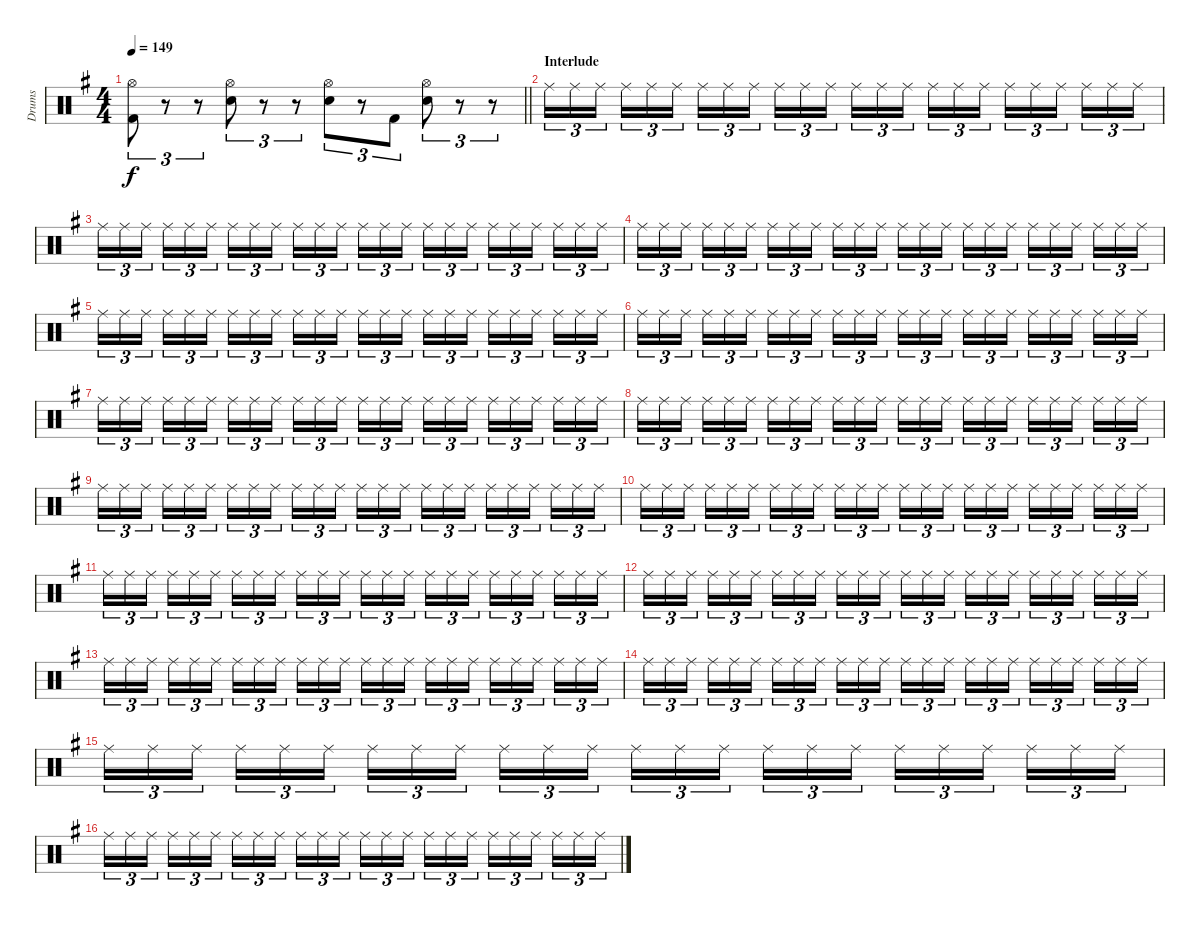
\track ("Drums" "Drums") {instrument percussion}
\staff {score}
\articulation defaults
\ts (4 4)
\tempo 149
\clef neutral
\barLineRight lightlight
\ks g
("Hi-Hat (open)" "Kick (hit) 2").8{tu (3 2) dy f} r.8{tu (3 2)} r.8{tu (3 2)} ("Hi-Hat (open)" "Electric Snare (hit)").8{tu (3 2)} r.8{tu (3 2)} r.8{tu (3 2)} ("Hi-Hat (open)" "Electric Snare (hit)").8{tu (3 2)} r.8{tu (3 2)} "Kick (hit) 2".8{tu (3 2)} ("Hi-Hat (open)" "Electric Snare (hit)").8{tu (3 2)} r.8{tu (3 2)} r.8{tu (3 2)} |
\section ("" "Interlude")
"Ride (middle)".16{tu (3 2)} "Ride (middle)".16{tu (3 2)} "Ride (middle)".16{tu (3 2) beam splitsecondary} "Ride (middle)".16{tu (3 2)} "Ride (middle)".16{tu (3 2)} "Ride (middle)".16{tu (3 2)} "Ride (middle)".16{tu (3 2)} "Ride (middle)".16{tu (3 2)} "Ride (middle)".16{tu (3 2) beam splitsecondary} "Ride (middle)".16{tu (3 2)} "Ride (middle)".16{tu (3 2)} "Ride (middle)".16{tu (3 2)} "Ride (middle)".16{tu (3 2)} "Ride (middle)".16{tu (3 2)} "Ride (middle)".16{tu (3 2) beam splitsecondary} "Ride (middle)".16{tu (3 2)} "Ride (middle)".16{tu (3 2)} "Ride (middle)".16{tu (3 2)} "Ride (middle)".16{tu (3 2)} "Ride (middle)".16{tu (3 2)} "Ride (middle)".16{tu (3 2) beam splitsecondary} "Ride (middle)".16{tu (3 2)} "Ride (middle)".16{tu (3 2)} "Ride (middle)".16{tu (3 2)} |
"Ride (middle)".16{tu (3 2)} "Ride (middle)".16{tu (3 2)} "Ride (middle)".16{tu (3 2) beam splitsecondary} "Ride (middle)".16{tu (3 2)} "Ride (middle)".16{tu (3 2)} "Ride (middle)".16{tu (3 2)} "Ride (middle)".16{tu (3 2)} "Ride (middle)".16{tu (3 2)} "Ride (middle)".16{tu (3 2) beam splitsecondary} "Ride (middle)".16{tu (3 2)} "Ride (middle)".16{tu (3 2)} "Ride (middle)".16{tu (3 2)} "Ride (middle)".16{tu (3 2)} "Ride (middle)".16{tu (3 2)} "Ride (middle)".16{tu (3 2) beam splitsecondary} "Ride (middle)".16{tu (3 2)} "Ride (middle)".16{tu (3 2)} "Ride (middle)".16{tu (3 2)} "Ride (middle)".16{tu (3 2)} "Ride (middle)".16{tu (3 2)} "Ride (middle)".16{tu (3 2) beam splitsecondary} "Ride (middle)".16{tu (3 2)} "Ride (middle)".16{tu (3 2)} "Ride (middle)".16{tu (3 2)} |
"Ride (middle)".16{tu (3 2)} "Ride (middle)".16{tu (3 2)} "Ride (middle)".16{tu (3 2) beam splitsecondary} "Ride (middle)".16{tu (3 2)} "Ride (middle)".16{tu (3 2)} "Ride (middle)".16{tu (3 2)} "Ride (middle)".16{tu (3 2)} "Ride (middle)".16{tu (3 2)} "Ride (middle)".16{tu (3 2) beam splitsecondary} "Ride (middle)".16{tu (3 2)} "Ride (middle)".16{tu (3 2)} "Ride (middle)".16{tu (3 2)} "Ride (middle)".16{tu (3 2)} "Ride (middle)".16{tu (3 2)} "Ride (middle)".16{tu (3 2) beam splitsecondary} "Ride (middle)".16{tu (3 2)} "Ride (middle)".16{tu (3 2)} "Ride (middle)".16{tu (3 2)} "Ride (middle)".16{tu (3 2)} "Ride (middle)".16{tu (3 2)} "Ride (middle)".16{tu (3 2) beam splitsecondary} "Ride (middle)".16{tu (3 2)} "Ride (middle)".16{tu (3 2)} "Ride (middle)".16{tu (3 2)} |
"Ride (middle)".16{tu (3 2)} "Ride (middle)".16{tu (3 2)} "Ride (middle)".16{tu (3 2) beam splitsecondary} "Ride (middle)".16{tu (3 2)} "Ride (middle)".16{tu (3 2)} "Ride (middle)".16{tu (3 2)} "Ride (middle)".16{tu (3 2)} "Ride (middle)".16{tu (3 2)} "Ride (middle)".16{tu (3 2) beam splitsecondary} "Ride (middle)".16{tu (3 2)} "Ride (middle)".16{tu (3 2)} "Ride (middle)".16{tu (3 2)} "Ride (middle)".16{tu (3 2)} "Ride (middle)".16{tu (3 2)} "Ride (middle)".16{tu (3 2) beam splitsecondary} "Ride (middle)".16{tu (3 2)} "Ride (middle)".16{tu (3 2)} "Ride (middle)".16{tu (3 2)} "Ride (middle)".16{tu (3 2)} "Ride (middle)".16{tu (3 2)} "Ride (middle)".16{tu (3 2) beam splitsecondary} "Ride (middle)".16{tu (3 2)} "Ride (middle)".16{tu (3 2)} "Ride (middle)".16{tu (3 2)} |
"Ride (middle)".16{tu (3 2)} "Ride (middle)".16{tu (3 2)} "Ride (middle)".16{tu (3 2) beam splitsecondary} "Ride (middle)".16{tu (3 2)} "Ride (middle)".16{tu (3 2)} "Ride (middle)".16{tu (3 2)} "Ride (middle)".16{tu (3 2)} "Ride (middle)".16{tu (3 2)} "Ride (middle)".16{tu (3 2) beam splitsecondary} "Ride (middle)".16{tu (3 2)} "Ride (middle)".16{tu (3 2)} "Ride (middle)".16{tu (3 2)} "Ride (middle)".16{tu (3 2)} "Ride (middle)".16{tu (3 2)} "Ride (middle)".16{tu (3 2) beam splitsecondary} "Ride (middle)".16{tu (3 2)} "Ride (middle)".16{tu (3 2)} "Ride (middle)".16{tu (3 2)} "Ride (middle)".16{tu (3 2)} "Ride (middle)".16{tu (3 2)} "Ride (middle)".16{tu (3 2) beam splitsecondary} "Ride (middle)".16{tu (3 2)} "Ride (middle)".16{tu (3 2)} "Ride (middle)".16{tu (3 2)} |
"Ride (middle)".16{tu (3 2)} "Ride (middle)".16{tu (3 2)} "Ride (middle)".16{tu (3 2) beam splitsecondary} "Ride (middle)".16{tu (3 2)} "Ride (middle)".16{tu (3 2)} "Ride (middle)".16{tu (3 2)} "Ride (middle)".16{tu (3 2)} "Ride (middle)".16{tu (3 2)} "Ride (middle)".16{tu (3 2) beam splitsecondary} "Ride (middle)".16{tu (3 2)} "Ride (middle)".16{tu (3 2)} "Ride (middle)".16{tu (3 2)} "Ride (middle)".16{tu (3 2)} "Ride (middle)".16{tu (3 2)} "Ride (middle)".16{tu (3 2) beam splitsecondary} "Ride (middle)".16{tu (3 2)} "Ride (middle)".16{tu (3 2)} "Ride (middle)".16{tu (3 2)} "Ride (middle)".16{tu (3 2)} "Ride (middle)".16{tu (3 2)} "Ride (middle)".16{tu (3 2) beam splitsecondary} "Ride (middle)".16{tu (3 2)} "Ride (middle)".16{tu (3 2)} "Ride (middle)".16{tu (3 2)} |
"Ride (middle)".16{tu (3 2)} "Ride (middle)".16{tu (3 2)} "Ride (middle)".16{tu (3 2) beam splitsecondary} "Ride (middle)".16{tu (3 2)} "Ride (middle)".16{tu (3 2)} "Ride (middle)".16{tu (3 2)} "Ride (middle)".16{tu (3 2)} "Ride (middle)".16{tu (3 2)} "Ride (middle)".16{tu (3 2) beam splitsecondary} "Ride (middle)".16{tu (3 2)} "Ride (middle)".16{tu (3 2)} "Ride (middle)".16{tu (3 2)} "Ride (middle)".16{tu (3 2)} "Ride (middle)".16{tu (3 2)} "Ride (middle)".16{tu (3 2) beam splitsecondary} "Ride (middle)".16{tu (3 2)} "Ride (middle)".16{tu (3 2)} "Ride (middle)".16{tu (3 2)} "Ride (middle)".16{tu (3 2)} "Ride (middle)".16{tu (3 2)} "Ride (middle)".16{tu (3 2) beam splitsecondary} "Ride (middle)".16{tu (3 2)} "Ride (middle)".16{tu (3 2)} "Ride (middle)".16{tu (3 2)} |
"Ride (middle)".16{tu (3 2)} "Ride (middle)".16{tu (3 2)} "Ride (middle)".16{tu (3 2) beam splitsecondary} "Ride (middle)".16{tu (3 2)} "Ride (middle)".16{tu (3 2)} "Ride (middle)".16{tu (3 2)} "Ride (middle)".16{tu (3 2)} "Ride (middle)".16{tu (3 2)} "Ride (middle)".16{tu (3 2) beam splitsecondary} "Ride (middle)".16{tu (3 2)} "Ride (middle)".16{tu (3 2)} "Ride (middle)".16{tu (3 2)} "Ride (middle)".16{tu (3 2)} "Ride (middle)".16{tu (3 2)} "Ride (middle)".16{tu (3 2) beam splitsecondary} "Ride (middle)".16{tu (3 2)} "Ride (middle)".16{tu (3 2)} "Ride (middle)".16{tu (3 2)} "Ride (middle)".16{tu (3 2)} "Ride (middle)".16{tu (3 2)} "Ride (middle)".16{tu (3 2) beam splitsecondary} "Ride (middle)".16{tu (3 2)} "Ride (middle)".16{tu (3 2)} "Ride (middle)".16{tu (3 2)} |
"Ride (middle)".16{tu (3 2)} "Ride (middle)".16{tu (3 2)} "Ride (middle)".16{tu (3 2) beam splitsecondary} "Ride (middle)".16{tu (3 2)} "Ride (middle)".16{tu (3 2)} "Ride (middle)".16{tu (3 2)} "Ride (middle)".16{tu (3 2)} "Ride (middle)".16{tu (3 2)} "Ride (middle)".16{tu (3 2) beam splitsecondary} "Ride (middle)".16{tu (3 2)} "Ride (middle)".16{tu (3 2)} "Ride (middle)".16{tu (3 2)} "Ride (middle)".16{tu (3 2)} "Ride (middle)".16{tu (3 2)} "Ride (middle)".16{tu (3 2) beam splitsecondary} "Ride (middle)".16{tu (3 2)} "Ride (middle)".16{tu (3 2)} "Ride (middle)".16{tu (3 2)} "Ride (middle)".16{tu (3 2)} "Ride (middle)".16{tu (3 2)} "Ride (middle)".16{tu (3 2) beam splitsecondary} "Ride (middle)".16{tu (3 2)} "Ride (middle)".16{tu (3 2)} "Ride (middle)".16{tu (3 2)} |
"Ride (middle)".16{tu (3 2)} "Ride (middle)".16{tu (3 2)} "Ride (middle)".16{tu (3 2) beam splitsecondary} "Ride (middle)".16{tu (3 2)} "Ride (middle)".16{tu (3 2)} "Ride (middle)".16{tu (3 2)} "Ride (middle)".16{tu (3 2)} "Ride (middle)".16{tu (3 2)} "Ride (middle)".16{tu (3 2) beam splitsecondary} "Ride (middle)".16{tu (3 2)} "Ride (middle)".16{tu (3 2)} "Ride (middle)".16{tu (3 2)} "Ride (middle)".16{tu (3 2)} "Ride (middle)".16{tu (3 2)} "Ride (middle)".16{tu (3 2) beam splitsecondary} "Ride (middle)".16{tu (3 2)} "Ride (middle)".16{tu (3 2)} "Ride (middle)".16{tu (3 2)} "Ride (middle)".16{tu (3 2)} "Ride (middle)".16{tu (3 2)} "Ride (middle)".16{tu (3 2) beam splitsecondary} "Ride (middle)".16{tu (3 2)} "Ride (middle)".16{tu (3 2)} "Ride (middle)".16{tu (3 2)} |
"Ride (middle)".16{tu (3 2)} "Ride (middle)".16{tu (3 2)} "Ride (middle)".16{tu (3 2) beam splitsecondary} "Ride (middle)".16{tu (3 2)} "Ride (middle)".16{tu (3 2)} "Ride (middle)".16{tu (3 2)} "Ride (middle)".16{tu (3 2)} "Ride (middle)".16{tu (3 2)} "Ride (middle)".16{tu (3 2) beam splitsecondary} "Ride (middle)".16{tu (3 2)} "Ride (middle)".16{tu (3 2)} "Ride (middle)".16{tu (3 2)} "Ride (middle)".16{tu (3 2)} "Ride (middle)".16{tu (3 2)} "Ride (middle)".16{tu (3 2) beam splitsecondary} "Ride (middle)".16{tu (3 2)} "Ride (middle)".16{tu (3 2)} "Ride (middle)".16{tu (3 2)} "Ride (middle)".16{tu (3 2)} "Ride (middle)".16{tu (3 2)} "Ride (middle)".16{tu (3 2) beam splitsecondary} "Ride (middle)".16{tu (3 2)} "Ride (middle)".16{tu (3 2)} "Ride (middle)".16{tu (3 2)} |
"Ride (middle)".16{tu (3 2)} "Ride (middle)".16{tu (3 2)} "Ride (middle)".16{tu (3 2) beam splitsecondary} "Ride (middle)".16{tu (3 2)} "Ride (middle)".16{tu (3 2)} "Ride (middle)".16{tu (3 2)} "Ride (middle)".16{tu (3 2)} "Ride (middle)".16{tu (3 2)} "Ride (middle)".16{tu (3 2) beam splitsecondary} "Ride (middle)".16{tu (3 2)} "Ride (middle)".16{tu (3 2)} "Ride (middle)".16{tu (3 2)} "Ride (middle)".16{tu (3 2)} "Ride (middle)".16{tu (3 2)} "Ride (middle)".16{tu (3 2) beam splitsecondary} "Ride (middle)".16{tu (3 2)} "Ride (middle)".16{tu (3 2)} "Ride (middle)".16{tu (3 2)} "Ride (middle)".16{tu (3 2)} "Ride (middle)".16{tu (3 2)} "Ride (middle)".16{tu (3 2) beam splitsecondary} "Ride (middle)".16{tu (3 2)} "Ride (middle)".16{tu (3 2)} "Ride (middle)".16{tu (3 2)} |
"Ride (middle)".16{tu (3 2)} "Ride (middle)".16{tu (3 2)} "Ride (middle)".16{tu (3 2) beam splitsecondary} "Ride (middle)".16{tu (3 2)} "Ride (middle)".16{tu (3 2)} "Ride (middle)".16{tu (3 2)} "Ride (middle)".16{tu (3 2)} "Ride (middle)".16{tu (3 2)} "Ride (middle)".16{tu (3 2) beam splitsecondary} "Ride (middle)".16{tu (3 2)} "Ride (middle)".16{tu (3 2)} "Ride (middle)".16{tu (3 2)} "Ride (middle)".16{tu (3 2)} "Ride (middle)".16{tu (3 2)} "Ride (middle)".16{tu (3 2) beam splitsecondary} "Ride (middle)".16{tu (3 2)} "Ride (middle)".16{tu (3 2)} "Ride (middle)".16{tu (3 2)} "Ride (middle)".16{tu (3 2)} "Ride (middle)".16{tu (3 2)} "Ride (middle)".16{tu (3 2) beam splitsecondary} "Ride (middle)".16{tu (3 2)} "Ride (middle)".16{tu (3 2)} "Ride (middle)".16{tu (3 2)} |
"Ride (middle)".16{tu (3 2)} "Ride (middle)".16{tu (3 2)} "Ride (middle)".16{tu (3 2) beam splitsecondary} "Ride (middle)".16{tu (3 2)} "Ride (middle)".16{tu (3 2)} "Ride (middle)".16{tu (3 2)} "Ride (middle)".16{tu (3 2)} "Ride (middle)".16{tu (3 2)} "Ride (middle)".16{tu (3 2) beam splitsecondary} "Ride (middle)".16{tu (3 2)} "Ride (middle)".16{tu (3 2)} "Ride (middle)".16{tu (3 2)} "Ride (middle)".16{tu (3 2)} "Ride (middle)".16{tu (3 2)} "Ride (middle)".16{tu (3 2) beam splitsecondary} "Ride (middle)".16{tu (3 2)} "Ride (middle)".16{tu (3 2)} "Ride (middle)".16{tu (3 2)} "Ride (middle)".16{tu (3 2)} "Ride (middle)".16{tu (3 2)} "Ride (middle)".16{tu (3 2) beam splitsecondary} "Ride (middle)".16{tu (3 2)} "Ride (middle)".16{tu (3 2)} "Ride (middle)".16{tu (3 2)} |
"Ride (middle)".16{tu (3 2)} "Ride (middle)".16{tu (3 2)} "Ride (middle)".16{tu (3 2) beam splitsecondary} "Ride (middle)".16{tu (3 2)} "Ride (middle)".16{tu (3 2)} "Ride (middle)".16{tu (3 2)} "Ride (middle)".16{tu (3 2)} "Ride (middle)".16{tu (3 2)} "Ride (middle)".16{tu (3 2) beam splitsecondary} "Ride (middle)".16{tu (3 2)} "Ride (middle)".16{tu (3 2)} "Ride (middle)".16{tu (3 2)} "Ride (middle)".16{tu (3 2)} "Ride (middle)".16{tu (3 2)} "Ride (middle)".16{tu (3 2) beam splitsecondary} "Ride (middle)".16{tu (3 2)} "Ride (middle)".16{tu (3 2)} "Ride (middle)".16{tu (3 2)} "Ride (middle)".16{tu (3 2)} "Ride (middle)".16{tu (3 2)} "Ride (middle)".16{tu (3 2) beam splitsecondary} "Ride (middle)".16{tu (3 2)} "Ride (middle)".16{tu (3 2)} "Ride (middle)".16{tu (3 2)}
